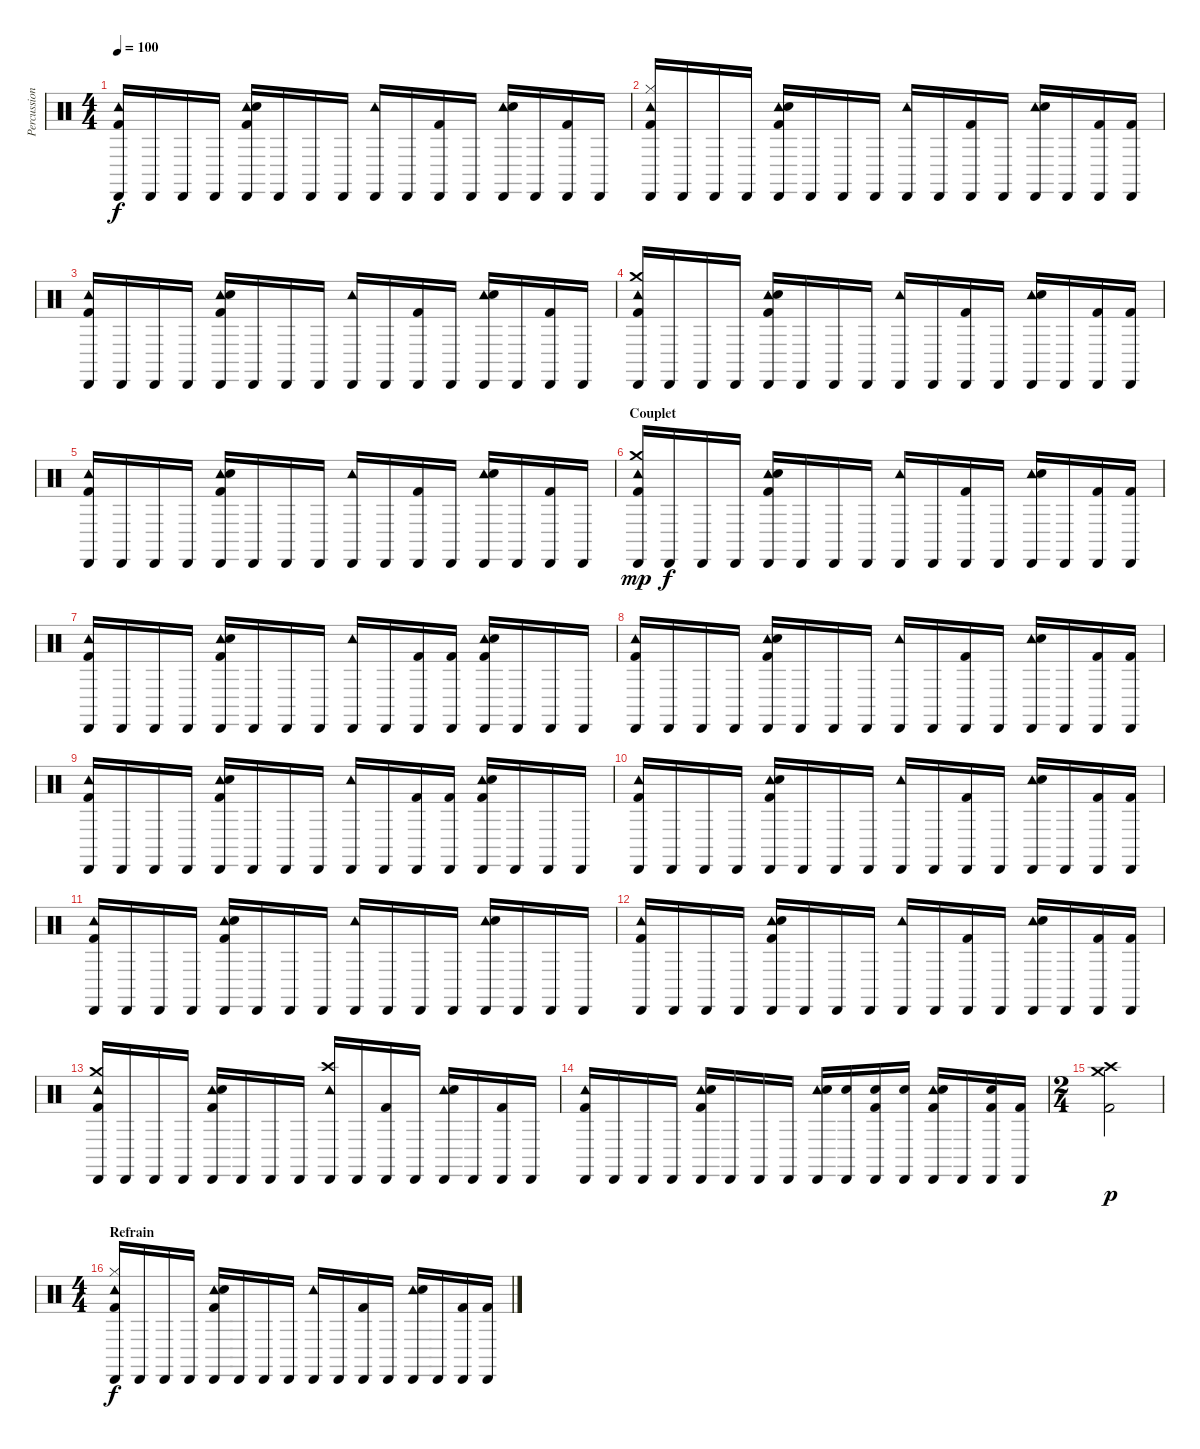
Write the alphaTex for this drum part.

\track ("Percussions" "Percussion") {instrument percussion}
\staff {score}
\articulation defaults
\ts (4 4)
\tempo 100
\clef neutral
\ks c
("Cabasa (hit)" "Tambourine (hit)" "Kick (hit) 2").16{dy f} "Cabasa (hit)".16 "Cabasa (hit)".16 "Cabasa (hit)".16 ("Cabasa (hit)" "Tambourine (hit)" "Hand Clap (hit)" "Kick (hit) 2").16 "Cabasa (hit)".16 "Cabasa (hit)".16 "Cabasa (hit)".16 ("Cabasa (hit)" "Tambourine (hit)").16 "Cabasa (hit)".16 ("Cabasa (hit)" "Kick (hit) 2").16 "Cabasa (hit)".16 ("Cabasa (hit)" "Tambourine (hit)" "Hand Clap (hit)").16 "Cabasa (hit)".16 ("Cabasa (hit)" "Kick (hit) 2").16 "Cabasa (hit)".16 |
("Cabasa (hit)" "Tambourine (hit)" "Hi-Hat (closed)" "Kick (hit) 2").16 "Cabasa (hit)".16 "Cabasa (hit)".16 "Cabasa (hit)".16 ("Cabasa (hit)" "Tambourine (hit)" "Hand Clap (hit)" "Kick (hit) 2").16 "Cabasa (hit)".16 "Cabasa (hit)".16 "Cabasa (hit)".16 ("Cabasa (hit)" "Tambourine (hit)").16 "Cabasa (hit)".16 ("Cabasa (hit)" "Kick (hit) 2").16 "Cabasa (hit)".16 ("Cabasa (hit)" "Tambourine (hit)" "Hand Clap (hit)").16 "Cabasa (hit)".16 ("Cabasa (hit)" "Kick (hit) 2").16 ("Cabasa (hit)" "Kick (hit) 2").16 |
("Cabasa (hit)" "Tambourine (hit)" "Kick (hit) 2").16 "Cabasa (hit)".16 "Cabasa (hit)".16 "Cabasa (hit)".16 ("Cabasa (hit)" "Tambourine (hit)" "Hand Clap (hit)" "Kick (hit) 2").16 "Cabasa (hit)".16 "Cabasa (hit)".16 "Cabasa (hit)".16 ("Cabasa (hit)" "Tambourine (hit)").16 "Cabasa (hit)".16 ("Cabasa (hit)" "Kick (hit) 2").16 "Cabasa (hit)".16 ("Cabasa (hit)" "Tambourine (hit)" "Hand Clap (hit)").16 "Cabasa (hit)".16 ("Cabasa (hit)" "Kick (hit) 2").16 "Cabasa (hit)".16 |
("Cabasa (hit)" "Tambourine (hit)" "Crash medium (hit)" "Kick (hit) 2").16 "Cabasa (hit)".16 "Cabasa (hit)".16 "Cabasa (hit)".16 ("Cabasa (hit)" "Tambourine (hit)" "Hand Clap (hit)" "Kick (hit) 2").16 "Cabasa (hit)".16 "Cabasa (hit)".16 "Cabasa (hit)".16 ("Cabasa (hit)" "Tambourine (hit)").16 "Cabasa (hit)".16 ("Cabasa (hit)" "Kick (hit) 2").16 "Cabasa (hit)".16 ("Cabasa (hit)" "Tambourine (hit)" "Hand Clap (hit)").16 "Cabasa (hit)".16 ("Cabasa (hit)" "Kick (hit) 2").16 ("Cabasa (hit)" "Kick (hit) 2").16 |
("Cabasa (hit)" "Tambourine (hit)" "Kick (hit) 2").16 "Cabasa (hit)".16 "Cabasa (hit)".16 "Cabasa (hit)".16 ("Cabasa (hit)" "Tambourine (hit)" "Hand Clap (hit)" "Kick (hit) 2").16 "Cabasa (hit)".16 "Cabasa (hit)".16 "Cabasa (hit)".16 ("Cabasa (hit)" "Tambourine (hit)").16 "Cabasa (hit)".16 ("Cabasa (hit)" "Kick (hit) 2").16 "Cabasa (hit)".16 ("Cabasa (hit)" "Tambourine (hit)" "Hand Clap (hit)").16 "Cabasa (hit)".16 ("Cabasa (hit)" "Kick (hit) 2").16 "Cabasa (hit)".16 |
\section ("" "Couplet")
("Cabasa (hit)" "Tambourine (hit)" "Crash medium (hit)" "Kick (hit) 2").16{dy mp} "Cabasa (hit)".16{dy f} "Cabasa (hit)".16 "Cabasa (hit)".16 ("Cabasa (hit)" "Tambourine (hit)" "Hand Clap (hit)" "Kick (hit) 2").16 "Cabasa (hit)".16 "Cabasa (hit)".16 "Cabasa (hit)".16 ("Cabasa (hit)" "Tambourine (hit)").16 "Cabasa (hit)".16 ("Cabasa (hit)" "Kick (hit) 2").16 "Cabasa (hit)".16 ("Cabasa (hit)" "Tambourine (hit)" "Hand Clap (hit)").16 "Cabasa (hit)".16 ("Cabasa (hit)" "Kick (hit) 2").16 ("Cabasa (hit)" "Kick (hit) 2").16 |
("Cabasa (hit)" "Tambourine (hit)" "Kick (hit) 2").16 "Cabasa (hit)".16 "Cabasa (hit)".16 "Cabasa (hit)".16 ("Cabasa (hit)" "Tambourine (hit)" "Hand Clap (hit)" "Kick (hit) 2").16 "Cabasa (hit)".16 "Cabasa (hit)".16 "Cabasa (hit)".16 ("Cabasa (hit)" "Tambourine (hit)").16 "Cabasa (hit)".16 ("Cabasa (hit)" "Kick (hit) 2").16 ("Cabasa (hit)" "Kick (hit) 2").16 ("Cabasa (hit)" "Tambourine (hit)" "Hand Clap (hit)" "Kick (hit) 2").16 "Cabasa (hit)".16 "Cabasa (hit)".16 "Cabasa (hit)".16 |
("Cabasa (hit)" "Tambourine (hit)" "Kick (hit) 2").16 "Cabasa (hit)".16 "Cabasa (hit)".16 "Cabasa (hit)".16 ("Cabasa (hit)" "Tambourine (hit)" "Hand Clap (hit)" "Kick (hit) 2").16 "Cabasa (hit)".16 "Cabasa (hit)".16 "Cabasa (hit)".16 ("Cabasa (hit)" "Tambourine (hit)").16 "Cabasa (hit)".16 ("Cabasa (hit)" "Kick (hit) 2").16 "Cabasa (hit)".16 ("Cabasa (hit)" "Tambourine (hit)" "Hand Clap (hit)").16 "Cabasa (hit)".16 ("Cabasa (hit)" "Kick (hit) 2").16 ("Cabasa (hit)" "Kick (hit) 2").16 |
("Cabasa (hit)" "Tambourine (hit)" "Kick (hit) 2").16 "Cabasa (hit)".16 "Cabasa (hit)".16 "Cabasa (hit)".16 ("Cabasa (hit)" "Tambourine (hit)" "Hand Clap (hit)" "Kick (hit) 2").16 "Cabasa (hit)".16 "Cabasa (hit)".16 "Cabasa (hit)".16 ("Cabasa (hit)" "Tambourine (hit)").16 "Cabasa (hit)".16 ("Cabasa (hit)" "Kick (hit) 2").16 ("Cabasa (hit)" "Kick (hit) 2").16 ("Cabasa (hit)" "Tambourine (hit)" "Hand Clap (hit)" "Kick (hit) 2").16 "Cabasa (hit)".16 "Cabasa (hit)".16 "Cabasa (hit)".16 |
("Cabasa (hit)" "Tambourine (hit)" "Kick (hit) 2").16 "Cabasa (hit)".16 "Cabasa (hit)".16 "Cabasa (hit)".16 ("Cabasa (hit)" "Tambourine (hit)" "Hand Clap (hit)" "Kick (hit) 2").16 "Cabasa (hit)".16 "Cabasa (hit)".16 "Cabasa (hit)".16 ("Cabasa (hit)" "Tambourine (hit)").16 "Cabasa (hit)".16 ("Cabasa (hit)" "Kick (hit) 2").16 "Cabasa (hit)".16 ("Cabasa (hit)" "Tambourine (hit)" "Hand Clap (hit)").16 "Cabasa (hit)".16 ("Cabasa (hit)" "Kick (hit) 2").16 ("Cabasa (hit)" "Kick (hit) 2").16 |
("Cabasa (hit)" "Tambourine (hit)" "Kick (hit) 2").16 "Cabasa (hit)".16 "Cabasa (hit)".16 "Cabasa (hit)".16 ("Cabasa (hit)" "Tambourine (hit)" "Hand Clap (hit)" "Kick (hit) 2").16 "Cabasa (hit)".16 "Cabasa (hit)".16 "Cabasa (hit)".16 ("Cabasa (hit)" "Tambourine (hit)").16 "Cabasa (hit)".16 "Cabasa (hit)".16 "Cabasa (hit)".16 ("Cabasa (hit)" "Tambourine (hit)" "Hand Clap (hit)").16 "Cabasa (hit)".16 "Cabasa (hit)".16 "Cabasa (hit)".16 |
("Cabasa (hit)" "Tambourine (hit)" "Kick (hit) 2").16 "Cabasa (hit)".16 "Cabasa (hit)".16 "Cabasa (hit)".16 ("Cabasa (hit)" "Tambourine (hit)" "Hand Clap (hit)" "Kick (hit) 2").16 "Cabasa (hit)".16 "Cabasa (hit)".16 "Cabasa (hit)".16 ("Cabasa (hit)" "Tambourine (hit)").16 "Cabasa (hit)".16 ("Cabasa (hit)" "Kick (hit) 2").16 "Cabasa (hit)".16 ("Cabasa (hit)" "Tambourine (hit)" "Hand Clap (hit)").16 "Cabasa (hit)".16 ("Cabasa (hit)" "Kick (hit) 2").16 ("Cabasa (hit)" "Kick (hit) 2").16 |
("Cabasa (hit)" "Tambourine (hit)" "Crash medium (hit)" "Kick (hit) 2").16 "Cabasa (hit)".16 "Cabasa (hit)".16 "Cabasa (hit)".16 ("Cabasa (hit)" "Tambourine (hit)" "Hand Clap (hit)" "Kick (hit) 2").16 "Cabasa (hit)".16 "Cabasa (hit)".16 "Cabasa (hit)".16 ("Cabasa (hit)" "Tambourine (hit)" "Crash high (hit)").16 "Cabasa (hit)".16 ("Cabasa (hit)" "Kick (hit) 2").16 "Cabasa (hit)".16 ("Cabasa (hit)" "Tambourine (hit)" "Hand Clap (hit)").16 "Cabasa (hit)".16 ("Cabasa (hit)" "Kick (hit) 2").16 "Cabasa (hit)".16 |
("Cabasa (hit)" "Tambourine (hit)" "Kick (hit) 2").16 "Cabasa (hit)".16 "Cabasa (hit)".16 "Cabasa (hit)".16 ("Cabasa (hit)" "Tambourine (hit)" "Hand Clap (hit)" "Kick (hit) 2").16 "Cabasa (hit)".16 "Cabasa (hit)".16 "Cabasa (hit)".16 ("Cabasa (hit)" "Tambourine (hit)" "Snare (hit) 2").16 ("Cabasa (hit)" "Snare (hit) 2").16 ("Cabasa (hit)" "Snare (hit) 2" "Kick (hit) 2").16 ("Cabasa (hit)" "Snare (hit) 2").16 ("Cabasa (hit)" "Tambourine (hit)" "Snare (hit) 2" "Kick (hit) 2").16 "Cabasa (hit)".16 ("Cabasa (hit)" "Snare (hit) 2" "Kick (hit) 2").16 ("Cabasa (hit)" "Kick (hit) 2").16 |
\ts (2 4)
("Crash medium (hit)" "Crash high (hit)" "Kick (hit) 2").2{dy p} |
\ts (4 4)
\section ("" "Refrain")
("Cabasa (hit)" "Tambourine (hit)" "Hi-Hat (closed)" "Kick (hit) 2").16{dy f} "Cabasa (hit)".16 "Cabasa (hit)".16 "Cabasa (hit)".16 ("Cabasa (hit)" "Tambourine (hit)" "Hand Clap (hit)" "Kick (hit) 2").16 "Cabasa (hit)".16 "Cabasa (hit)".16 "Cabasa (hit)".16 ("Cabasa (hit)" "Tambourine (hit)").16 "Cabasa (hit)".16 ("Cabasa (hit)" "Kick (hit) 2").16 "Cabasa (hit)".16 ("Cabasa (hit)" "Tambourine (hit)" "Hand Clap (hit)").16 "Cabasa (hit)".16 ("Cabasa (hit)" "Kick (hit) 2").16 ("Cabasa (hit)" "Kick (hit) 2").16
